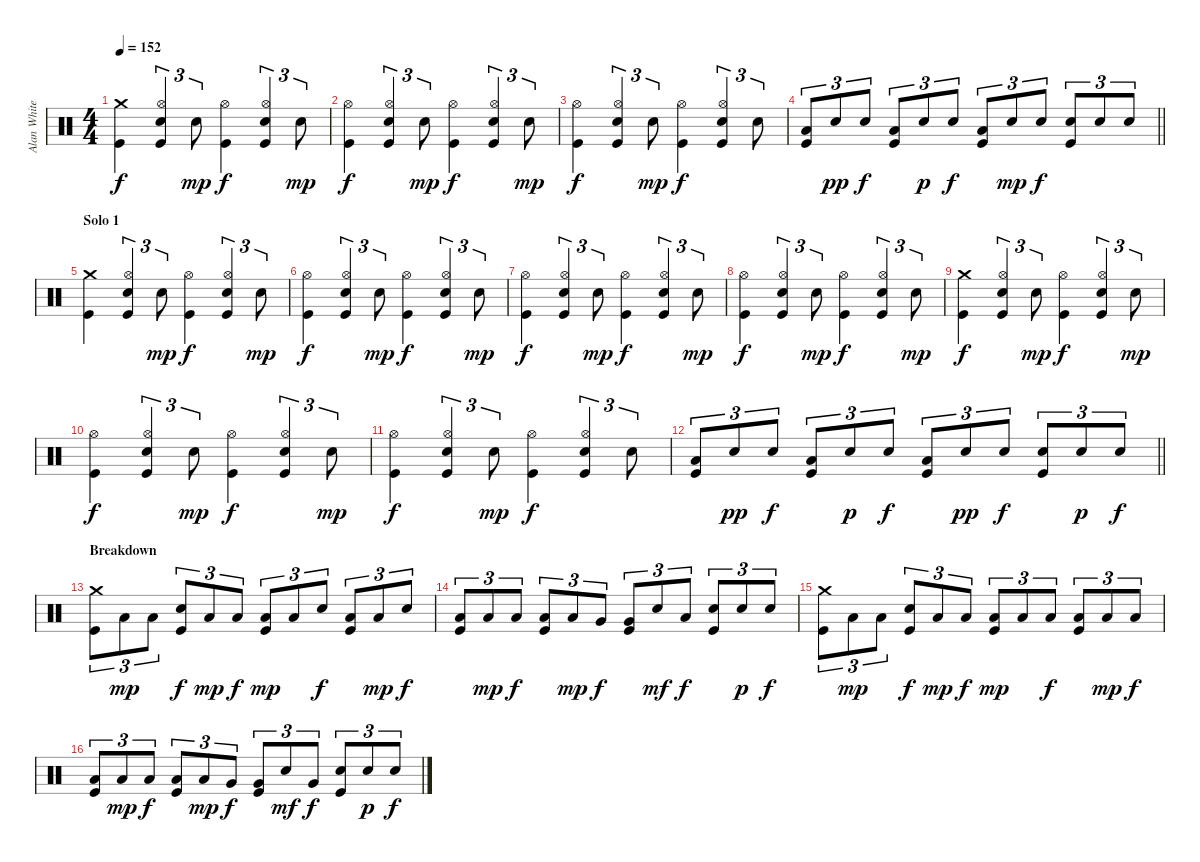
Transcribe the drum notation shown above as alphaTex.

\track ("Alan White" "Alan White") {instrument percussion}
\staff {score}
\articulation defaults
\ts (4 4)
\tempo 152
\clef neutral
\ks c
("Crash medium (hit)" "Kick (hit)").4{dy f} ("Hi-Hat (open)" "Electric Snare (hit)" "Kick (hit)").4{tu (3 2)} "Electric Snare (hit)".8{tu (3 2) dy mp} ("Hi-Hat (open)" "Kick (hit)").4{dy f} ("Hi-Hat (open)" "Electric Snare (hit)" "Kick (hit)").4{tu (3 2)} "Electric Snare (hit)".8{tu (3 2) dy mp} |
("Hi-Hat (open)" "Kick (hit)").4{dy f} ("Hi-Hat (open)" "Electric Snare (hit)" "Kick (hit)").4{tu (3 2)} "Electric Snare (hit)".8{tu (3 2) dy mp} ("Hi-Hat (open)" "Kick (hit)").4{dy f} ("Hi-Hat (open)" "Electric Snare (hit)" "Kick (hit)").4{tu (3 2)} "Electric Snare (hit)".8{tu (3 2) dy mp} |
("Hi-Hat (open)" "Kick (hit)").4{dy f} ("Hi-Hat (open)" "Electric Snare (hit)" "Kick (hit)").4{tu (3 2)} "Electric Snare (hit)".8{tu (3 2) dy mp} ("Hi-Hat (open)" "Kick (hit)").4{dy f} ("Hi-Hat (open)" "Electric Snare (hit)" "Kick (hit)").4{tu (3 2)} "Electric Snare (hit)".8{tu (3 2)} |
\barLineRight lightlight
("Low Tom (hit)" "Kick (hit)").8{tu (3 2)} "Electric Snare (hit)".8{tu (3 2) dy pp} "Electric Snare (hit)".8{tu (3 2) dy f} ("Low Tom (hit)" "Kick (hit)").8{tu (3 2)} "Electric Snare (hit)".8{tu (3 2) dy p} "Electric Snare (hit)".8{tu (3 2) dy f} ("Low Tom (hit)" "Kick (hit)").8{tu (3 2)} "Electric Snare (hit)".8{tu (3 2) dy mp} "Electric Snare (hit)".8{tu (3 2) dy f} ("Electric Snare (hit)" "Kick (hit)").8{tu (3 2)} "Electric Snare (hit)".8{tu (3 2)} "Electric Snare (hit)".8{tu (3 2)} |
\section ("" "Solo 1")
("Crash medium (hit)" "Kick (hit)").4 ("Hi-Hat (open)" "Electric Snare (hit)" "Kick (hit)").4{tu (3 2)} "Electric Snare (hit)".8{tu (3 2) dy mp} ("Hi-Hat (open)" "Kick (hit)").4{dy f} ("Hi-Hat (open)" "Electric Snare (hit)" "Kick (hit)").4{tu (3 2)} "Electric Snare (hit)".8{tu (3 2) dy mp} |
("Hi-Hat (open)" "Kick (hit)").4{dy f} ("Hi-Hat (open)" "Electric Snare (hit)" "Kick (hit)").4{tu (3 2)} "Electric Snare (hit)".8{tu (3 2) dy mp} ("Hi-Hat (open)" "Kick (hit)").4{dy f} ("Hi-Hat (open)" "Electric Snare (hit)" "Kick (hit)").4{tu (3 2)} "Electric Snare (hit)".8{tu (3 2) dy mp} |
("Hi-Hat (open)" "Kick (hit)").4{dy f} ("Hi-Hat (open)" "Electric Snare (hit)" "Kick (hit)").4{tu (3 2)} "Electric Snare (hit)".8{tu (3 2) dy mp} ("Hi-Hat (open)" "Kick (hit)").4{dy f} ("Hi-Hat (open)" "Electric Snare (hit)" "Kick (hit)").4{tu (3 2)} "Electric Snare (hit)".8{tu (3 2) dy mp} |
("Hi-Hat (open)" "Kick (hit)").4{dy f} ("Hi-Hat (open)" "Electric Snare (hit)" "Kick (hit)").4{tu (3 2)} "Electric Snare (hit)".8{tu (3 2) dy mp} ("Hi-Hat (open)" "Kick (hit)").4{dy f} ("Hi-Hat (open)" "Electric Snare (hit)" "Kick (hit)").4{tu (3 2)} "Electric Snare (hit)".8{tu (3 2) dy mp} |
("Crash medium (hit)" "Kick (hit)").4{dy f} ("Hi-Hat (open)" "Electric Snare (hit)" "Kick (hit)").4{tu (3 2)} "Electric Snare (hit)".8{tu (3 2) dy mp} ("Hi-Hat (open)" "Kick (hit)").4{dy f} ("Hi-Hat (open)" "Electric Snare (hit)" "Kick (hit)").4{tu (3 2)} "Electric Snare (hit)".8{tu (3 2) dy mp} |
("Hi-Hat (open)" "Kick (hit)").4{dy f} ("Hi-Hat (open)" "Electric Snare (hit)" "Kick (hit)").4{tu (3 2)} "Electric Snare (hit)".8{tu (3 2) dy mp} ("Hi-Hat (open)" "Kick (hit)").4{dy f} ("Hi-Hat (open)" "Electric Snare (hit)" "Kick (hit)").4{tu (3 2)} "Electric Snare (hit)".8{tu (3 2) dy mp} |
("Hi-Hat (open)" "Kick (hit)").4{dy f} ("Hi-Hat (open)" "Electric Snare (hit)" "Kick (hit)").4{tu (3 2)} "Electric Snare (hit)".8{tu (3 2) dy mp} ("Hi-Hat (open)" "Kick (hit)").4{dy f} ("Hi-Hat (open)" "Electric Snare (hit)" "Kick (hit)").4{tu (3 2)} "Electric Snare (hit)".8{tu (3 2)} |
\barLineRight lightlight
("Low Tom (hit)" "Kick (hit)").8{tu (3 2)} "Electric Snare (hit)".8{tu (3 2) dy pp} "Electric Snare (hit)".8{tu (3 2) dy f} ("Low Tom (hit)" "Kick (hit)").8{tu (3 2)} "Electric Snare (hit)".8{tu (3 2) dy p} "Electric Snare (hit)".8{tu (3 2) dy f} ("Low Floor Tom (hit)" "Kick (hit)").8{tu (3 2)} "Electric Snare (hit)".8{tu (3 2) dy pp} "Electric Snare (hit)".8{tu (3 2) dy f} ("Electric Snare (hit)" "Kick (hit)").8{tu (3 2)} "Electric Snare (hit)".8{tu (3 2) dy p} "Electric Snare (hit)".8{tu (3 2) dy f} |
\section ("" "Breakdown")
("Crash medium (hit)" "Kick (hit)").8{tu (3 2)} "Low Tom (hit)".8{tu (3 2) dy mp} "Low Tom (hit)".8{tu (3 2)} ("Electric Snare (hit)" "Kick (hit)").8{tu (3 2) dy f} "Low Tom (hit)".8{tu (3 2) dy mp} "Low Tom (hit)".8{tu (3 2) dy f} ("Low Tom (hit)" "Kick (hit)").8{tu (3 2) dy mp} "Low Tom (hit)".8{tu (3 2)} "Electric Snare (hit)".8{tu (3 2) dy f} ("Low Floor Tom (hit)" "Kick (hit)").8{tu (3 2)} "Low Tom (hit)".8{tu (3 2) dy mp} "Electric Snare (hit)".8{tu (3 2) dy f} |
("Low Tom (hit)" "Kick (hit)").8{tu (3 2)} "Low Tom (hit)".8{tu (3 2) dy mp} "Low Tom (hit)".8{tu (3 2) dy f} ("Low Tom (hit)" "Kick (hit)").8{tu (3 2)} "Low Tom (hit)".8{tu (3 2) dy mp} "Very Low Tom (hit)".8{tu (3 2) dy f} ("Very Low Tom (hit)" "Kick (hit)").8{tu (3 2)} "Electric Snare (hit)".8{tu (3 2) dy mf} "Low Floor Tom (hit)".8{tu (3 2) dy f} ("Electric Snare (hit)" "Kick (hit)").8{tu (3 2)} "Electric Snare (hit)".8{tu (3 2) dy p} "Electric Snare (hit)".8{tu (3 2) dy f} |
("Crash medium (hit)" "Kick (hit)").8{tu (3 2)} "Low Tom (hit)".8{tu (3 2) dy mp} "Low Tom (hit)".8{tu (3 2)} ("Electric Snare (hit)" "Kick (hit)").8{tu (3 2) dy f} "Low Tom (hit)".8{tu (3 2) dy mp} "Low Tom (hit)".8{tu (3 2) dy f} ("Low Tom (hit)" "Kick (hit)").8{tu (3 2) dy mp} "Low Tom (hit)".8{tu (3 2)} "Low Tom (hit)".8{tu (3 2) dy f} ("Low Floor Tom (hit)" "Kick (hit)").8{tu (3 2)} "Low Tom (hit)".8{tu (3 2) dy mp} "Low Tom (hit)".8{tu (3 2) dy f} |
("Low Tom (hit)" "Kick (hit)").8{tu (3 2)} "Low Tom (hit)".8{tu (3 2) dy mp} "Low Floor Tom (hit)".8{tu (3 2) dy f} ("Low Tom (hit)" "Kick (hit)").8{tu (3 2)} "Low Tom (hit)".8{tu (3 2) dy mp} "Very Low Tom (hit)".8{tu (3 2) dy f} ("Very Low Tom (hit)" "Kick (hit)").8{tu (3 2)} "Electric Snare (hit)".8{tu (3 2) dy mf} "Very Low Tom (hit)".8{tu (3 2) dy f} ("Electric Snare (hit)" "Kick (hit)").8{tu (3 2)} "Electric Snare (hit)".8{tu (3 2) dy p} "Electric Snare (hit)".8{tu (3 2) dy f}
